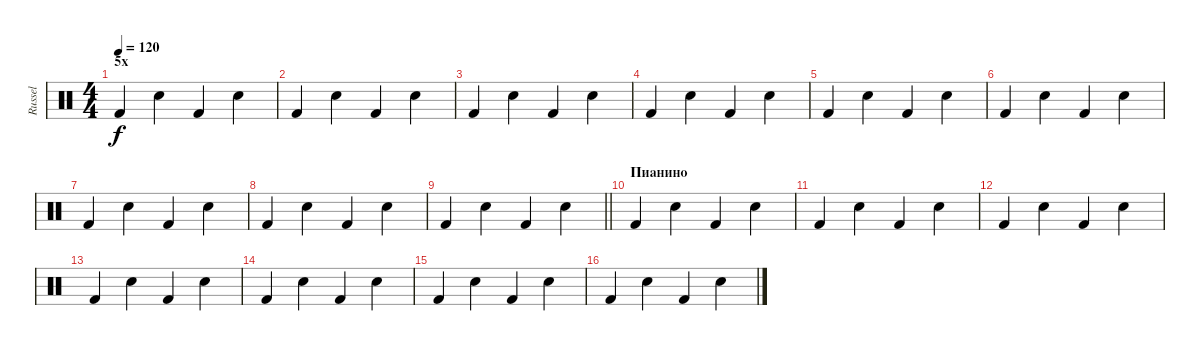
\track ("Russel" "Russel") {instrument percussion}
\staff {score}
\articulation defaults
\ts (4 4)
\section ("" "5х")
\tempo 120
\clef neutral
\ks c "Kick (hit) 2".4{dy f} "Hand Clap (hit)".4 "Kick (hit) 2".4 "Hand Clap (hit)".4
|
"Kick (hit) 2".4 "Hand Clap (hit)".4 "Kick (hit) 2".4 "Hand Clap (hit)".4 |
"Kick (hit) 2".4 "Hand Clap (hit)".4 "Kick (hit) 2".4 "Hand Clap (hit)".4 |
"Kick (hit) 2".4 "Hand Clap (hit)".4 "Kick (hit) 2".4 "Hand Clap (hit)".4 |
"Kick (hit) 2".4 "Hand Clap (hit)".4 "Kick (hit) 2".4 "Hand Clap (hit)".4 |
"Kick (hit) 2".4 "Hand Clap (hit)".4 "Kick (hit) 2".4 "Hand Clap (hit)".4 |
"Kick (hit) 2".4 "Hand Clap (hit)".4 "Kick (hit) 2".4 "Hand Clap (hit)".4 |
"Kick (hit) 2".4 "Hand Clap (hit)".4 "Kick (hit) 2".4 "Hand Clap (hit)".4 |
\barLineRight lightlight "Kick (hit) 2".4 "Hand Clap (hit)".4 "Kick (hit) 2".4 "Hand Clap (hit)".4
|
\section ("" "Пианино")
"Kick (hit) 2".4 "Hand Clap (hit)".4 "Kick (hit) 2".4 "Hand Clap (hit)".4 |
"Kick (hit) 2".4 "Hand Clap (hit)".4 "Kick (hit) 2".4 "Hand Clap (hit)".4 |
"Kick (hit) 2".4 "Hand Clap (hit)".4 "Kick (hit) 2".4 "Hand Clap (hit)".4 |
"Kick (hit) 2".4 "Hand Clap (hit)".4 "Kick (hit) 2".4 "Hand Clap (hit)".4 |
"Kick (hit) 2".4 "Hand Clap (hit)".4 "Kick (hit) 2".4 "Hand Clap (hit)".4 |
"Kick (hit) 2".4 "Hand Clap (hit)".4 "Kick (hit) 2".4 "Hand Clap (hit)".4 |
"Kick (hit) 2".4 "Hand Clap (hit)".4 "Kick (hit) 2".4 "Hand Clap (hit)".4
